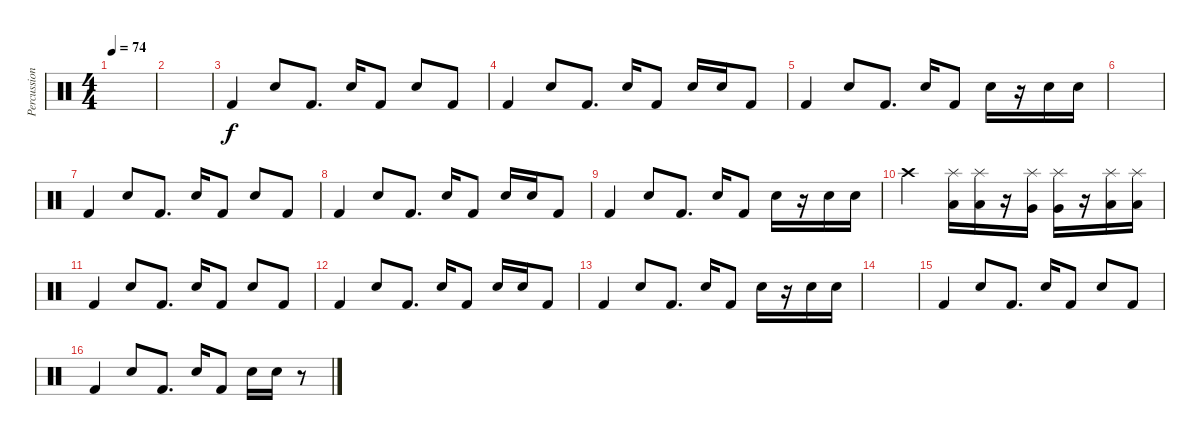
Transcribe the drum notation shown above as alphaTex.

\track ("Percussion" "Percussion") {instrument percussion}
\staff {score}
\articulation defaults
\ts (4 4)
\tempo 74
\clef neutral
\ks c
|
|
"Kick (hit) 2".4 "Electric Snare (hit)".8 "Kick (hit) 2".8{d} "Electric Snare (hit)".16 "Kick (hit) 2".8 "Electric Snare (hit)".8 "Kick (hit) 2".8 |
"Kick (hit) 2".4 "Electric Snare (hit)".8 "Kick (hit) 2".8{d} "Electric Snare (hit)".16 "Kick (hit) 2".8 "Electric Snare (hit)".16 "Electric Snare (hit)".16 "Kick (hit) 2".8 |
"Kick (hit) 2".4 "Electric Snare (hit)".8 "Kick (hit) 2".8{d} "Electric Snare (hit)".16 "Kick (hit) 2".8 "Electric Snare (hit)".16 r.16 "Electric Snare (hit)".16 "Electric Snare (hit)".16 |
|
"Kick (hit) 2".4 "Electric Snare (hit)".8 "Kick (hit) 2".8{d} "Electric Snare (hit)".16 "Kick (hit) 2".8 "Electric Snare (hit)".8 "Kick (hit) 2".8 |
"Kick (hit) 2".4 "Electric Snare (hit)".8 "Kick (hit) 2".8{d} "Electric Snare (hit)".16 "Kick (hit) 2".8 "Electric Snare (hit)".16 "Electric Snare (hit)".16 "Kick (hit) 2".8 |
"Kick (hit) 2".4 "Electric Snare (hit)".8 "Kick (hit) 2".8{d} "Electric Snare (hit)".16 "Kick (hit) 2".8 "Electric Snare (hit)".16 r.16 "Electric Snare (hit)".16 "Electric Snare (hit)".16 |
"Crash high (hit)".2 ("Splash (hit)" "Low Tom (hit)").16 ("Splash (hit)" "Low Tom (hit)").16 r.16 ("Splash (hit)" "Very Low Tom (hit)").16 ("Splash (hit)" "Very Low Tom (hit)").16 r.16 ("Splash (hit)" "Low Floor Tom (hit)").16 ("Splash (hit)" "Low Floor Tom (hit)").16 |
"Kick (hit) 2".4 "Electric Snare (hit)".8 "Kick (hit) 2".8{d} "Electric Snare (hit)".16 "Kick (hit) 2".8 "Electric Snare (hit)".8 "Kick (hit) 2".8 |
"Kick (hit) 2".4 "Electric Snare (hit)".8 "Kick (hit) 2".8{d} "Electric Snare (hit)".16 "Kick (hit) 2".8 "Electric Snare (hit)".16 "Electric Snare (hit)".16 "Kick (hit) 2".8 |
"Kick (hit) 2".4 "Electric Snare (hit)".8 "Kick (hit) 2".8{d} "Electric Snare (hit)".16 "Kick (hit) 2".8 "Electric Snare (hit)".16 r.16 "Electric Snare (hit)".16 "Electric Snare (hit)".16 |
|
"Kick (hit) 2".4 "Electric Snare (hit)".8 "Kick (hit) 2".8{d} "Electric Snare (hit)".16 "Kick (hit) 2".8 "Electric Snare (hit)".8 "Kick (hit) 2".8 |
"Kick (hit) 2".4 "Electric Snare (hit)".8 "Kick (hit) 2".8{d} "Electric Snare (hit)".16 "Kick (hit) 2".8 "Electric Snare (hit)".16 "Electric Snare (hit)".16 r.8
